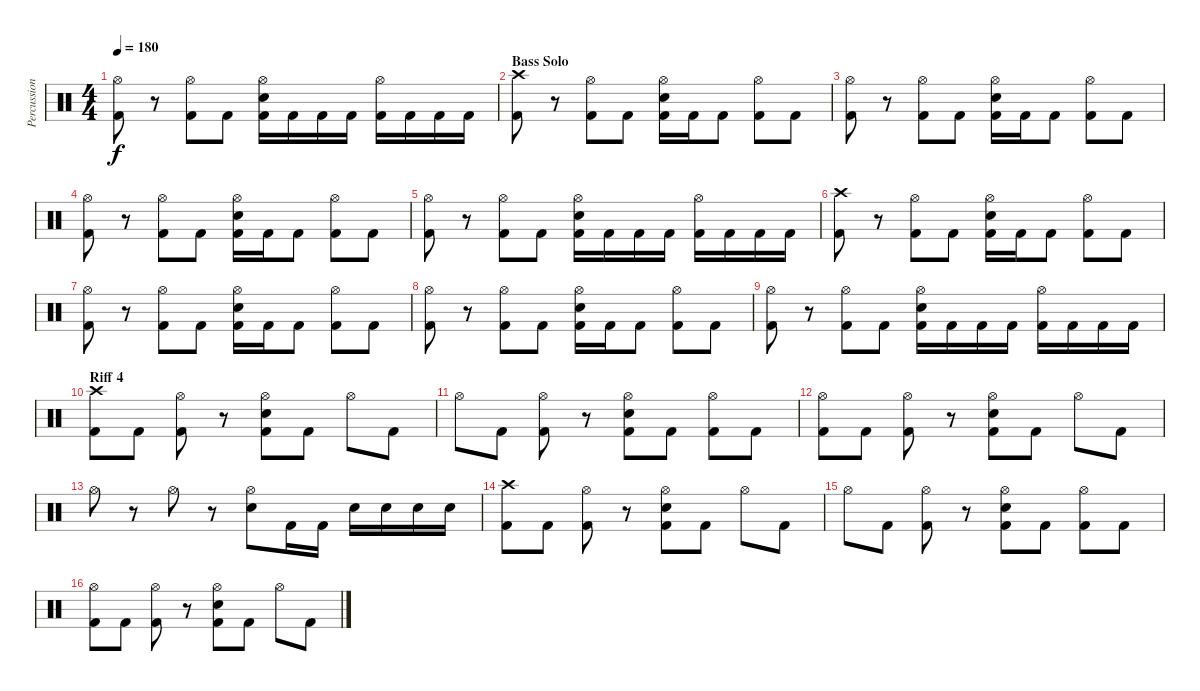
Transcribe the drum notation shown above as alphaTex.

\track ("Percussion" "Percussion") {instrument percussion}
\staff {score}
\articulation defaults
\ts (4 4)
\tempo 180
\clef neutral
\ks c
("Hi-Hat (open)" "Kick (hit) 2").8{dy f} r.8 ("Hi-Hat (open)" "Kick (hit) 2").8 "Kick (hit) 2".8 ("Hi-Hat (open)" "Electric Snare (hit)" "Kick (hit) 2").16 "Kick (hit) 2".16 "Kick (hit) 2".16 "Kick (hit) 2".16 ("Hi-Hat (open)" "Kick (hit) 2").16 "Kick (hit) 2".16 "Kick (hit) 2".16 "Kick (hit) 2".16 |
\section ("" "Bass Solo")
("Crash high (hit)" "Kick (hit) 2").8 r.8 ("Hi-Hat (open)" "Kick (hit) 2").8 "Kick (hit) 2".8 ("Hi-Hat (open)" "Electric Snare (hit)" "Kick (hit) 2").16 "Kick (hit) 2".16 "Kick (hit) 2".8 ("Hi-Hat (open)" "Kick (hit) 2").8 "Kick (hit) 2".8 |
("Hi-Hat (open)" "Kick (hit) 2").8 r.8 ("Hi-Hat (open)" "Kick (hit) 2").8 "Kick (hit) 2".8 ("Hi-Hat (open)" "Electric Snare (hit)" "Kick (hit) 2").16 "Kick (hit) 2".16 "Kick (hit) 2".8 ("Hi-Hat (open)" "Kick (hit) 2").8 "Kick (hit) 2".8 |
("Hi-Hat (open)" "Kick (hit) 2").8 r.8 ("Hi-Hat (open)" "Kick (hit) 2").8 "Kick (hit) 2".8 ("Hi-Hat (open)" "Electric Snare (hit)" "Kick (hit) 2").16 "Kick (hit) 2".16 "Kick (hit) 2".8 ("Hi-Hat (open)" "Kick (hit) 2").8 "Kick (hit) 2".8 |
("Hi-Hat (open)" "Kick (hit) 2").8 r.8 ("Hi-Hat (open)" "Kick (hit) 2").8 "Kick (hit) 2".8 ("Hi-Hat (open)" "Electric Snare (hit)" "Kick (hit) 2").16 "Kick (hit) 2".16 "Kick (hit) 2".16 "Kick (hit) 2".16 ("Hi-Hat (open)" "Kick (hit) 2").16 "Kick (hit) 2".16 "Kick (hit) 2".16 "Kick (hit) 2".16 |
("Crash high (hit)" "Kick (hit) 2").8 r.8 ("Hi-Hat (open)" "Kick (hit) 2").8 "Kick (hit) 2".8 ("Hi-Hat (open)" "Electric Snare (hit)" "Kick (hit) 2").16 "Kick (hit) 2".16 "Kick (hit) 2".8 ("Hi-Hat (open)" "Kick (hit) 2").8 "Kick (hit) 2".8 |
("Hi-Hat (open)" "Kick (hit) 2").8 r.8 ("Hi-Hat (open)" "Kick (hit) 2").8 "Kick (hit) 2".8 ("Hi-Hat (open)" "Electric Snare (hit)" "Kick (hit) 2").16 "Kick (hit) 2".16 "Kick (hit) 2".8 ("Hi-Hat (open)" "Kick (hit) 2").8 "Kick (hit) 2".8 |
("Hi-Hat (open)" "Kick (hit) 2").8 r.8 ("Hi-Hat (open)" "Kick (hit) 2").8 "Kick (hit) 2".8 ("Hi-Hat (open)" "Electric Snare (hit)" "Kick (hit) 2").16 "Kick (hit) 2".16 "Kick (hit) 2".8 ("Hi-Hat (open)" "Kick (hit) 2").8 "Kick (hit) 2".8 |
("Hi-Hat (open)" "Kick (hit) 2").8 r.8 ("Hi-Hat (open)" "Kick (hit) 2").8 "Kick (hit) 2".8 ("Hi-Hat (open)" "Electric Snare (hit)" "Kick (hit) 2").16 "Kick (hit) 2".16 "Kick (hit) 2".16 "Kick (hit) 2".16 ("Hi-Hat (open)" "Kick (hit) 2").16 "Kick (hit) 2".16 "Kick (hit) 2".16 "Kick (hit) 2".16 |
\section ("" "Riff 4")
("Crash high (hit)" "Kick (hit) 2").8 "Kick (hit) 2".8 ("Hi-Hat (open)" "Kick (hit) 2").8 r.8 ("Hi-Hat (open)" "Electric Snare (hit)" "Kick (hit) 2").8 "Kick (hit) 2".8 "Hi-Hat (open)".8 "Kick (hit) 2".8 |
"Hi-Hat (open)".8 "Kick (hit) 2".8 ("Hi-Hat (open)" "Kick (hit) 2").8 r.8 ("Hi-Hat (open)" "Electric Snare (hit)" "Kick (hit) 2").8 "Kick (hit) 2".8 ("Hi-Hat (open)" "Kick (hit) 2").8 "Kick (hit) 2".8 |
("Hi-Hat (open)" "Kick (hit) 2").8 "Kick (hit) 2".8 ("Hi-Hat (open)" "Kick (hit) 2").8 r.8 ("Hi-Hat (open)" "Electric Snare (hit)" "Kick (hit) 2").8 "Kick (hit) 2".8 "Hi-Hat (open)".8 "Kick (hit) 2".8 |
"Hi-Hat (open)".8 r.8 "Hi-Hat (open)".8 r.8 ("Hi-Hat (open)" "Electric Snare (hit)").8 "Kick (hit) 2".16 "Kick (hit) 2".16 "Electric Snare (hit)".16 "Electric Snare (hit)".16 "Electric Snare (hit)".16 "Electric Snare (hit)".16 |
("Crash high (hit)" "Kick (hit) 2").8 "Kick (hit) 2".8 ("Hi-Hat (open)" "Kick (hit) 2").8 r.8 ("Hi-Hat (open)" "Electric Snare (hit)" "Kick (hit) 2").8 "Kick (hit) 2".8 "Hi-Hat (open)".8 "Kick (hit) 2".8 |
"Hi-Hat (open)".8 "Kick (hit) 2".8 ("Hi-Hat (open)" "Kick (hit) 2").8 r.8 ("Hi-Hat (open)" "Electric Snare (hit)" "Kick (hit) 2").8 "Kick (hit) 2".8 ("Hi-Hat (open)" "Kick (hit) 2").8 "Kick (hit) 2".8 |
("Hi-Hat (open)" "Kick (hit) 2").8 "Kick (hit) 2".8 ("Hi-Hat (open)" "Kick (hit) 2").8 r.8 ("Hi-Hat (open)" "Electric Snare (hit)" "Kick (hit) 2").8 "Kick (hit) 2".8 "Hi-Hat (open)".8 "Kick (hit) 2".8
